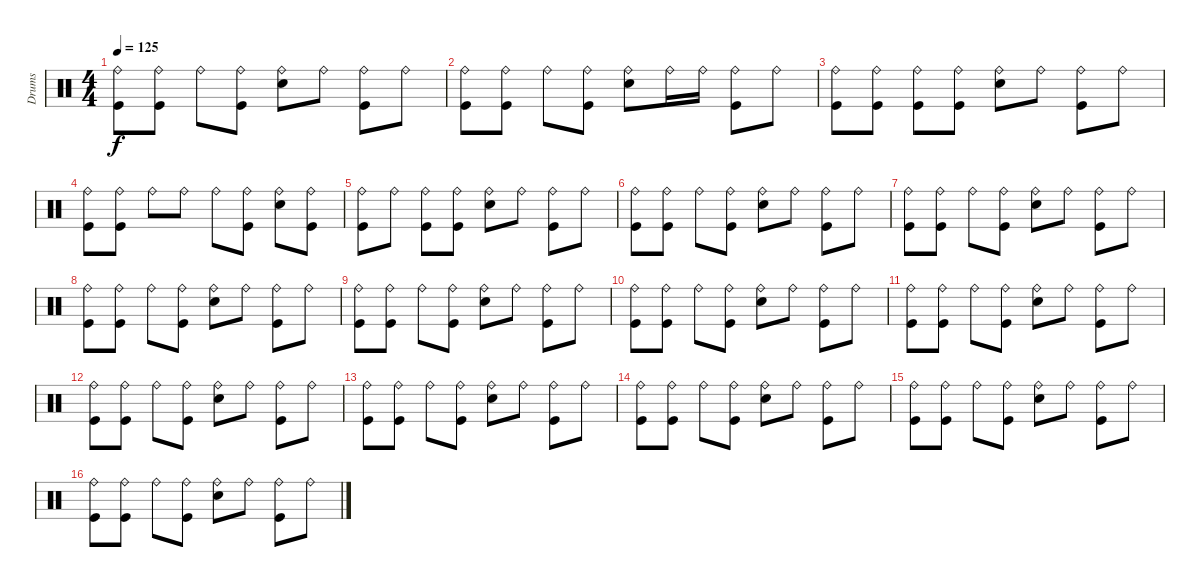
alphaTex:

\track ("Drums" "Drums") {instrument percussion}
\staff {score}
\articulation defaults
\ts (4 4)
\tempo 125
\clef neutral
\ks c
("Kick (hit)" "Ride (bell)").8{dy f} ("Kick (hit)" "Ride (bell)").8 "Ride (bell)".8 ("Kick (hit)" "Ride (bell)").8 ("Electric Snare (hit)" "Ride (bell)").8 "Ride (bell)".8 ("Kick (hit)" "Ride (bell)").8 "Ride (bell)".8 |
("Kick (hit)" "Ride (bell)").8 ("Kick (hit)" "Ride (bell)").8 "Ride (bell)".8 ("Kick (hit)" "Ride (bell)").8 ("Electric Snare (hit)" "Ride (bell)").8 "Ride (bell)".16 "Ride (bell)".16 ("Kick (hit)" "Ride (bell)").8 "Ride (bell)".8 |
("Kick (hit)" "Ride (bell)").8 ("Kick (hit)" "Ride (bell)").8 ("Kick (hit)" "Ride (bell)").8 ("Kick (hit)" "Ride (bell)").8 ("Electric Snare (hit)" "Ride (bell)").8 "Ride (bell)".8 ("Kick (hit)" "Ride (bell)").8 "Ride (bell)".8 |
("Kick (hit)" "Ride (bell)").8 ("Kick (hit)" "Ride (bell)").8 "Ride (bell)".8 "Ride (bell)".8 "Ride (bell)".8 ("Kick (hit)" "Ride (bell)").8 ("Electric Snare (hit)" "Ride (bell)").8 ("Kick (hit)" "Ride (bell)").8 |
("Kick (hit)" "Ride (bell)").8 "Ride (bell)".8 ("Kick (hit)" "Ride (bell)").8 ("Kick (hit)" "Ride (bell)").8 ("Electric Snare (hit)" "Ride (bell)").8 "Ride (bell)".8 ("Kick (hit)" "Ride (bell)").8 "Ride (bell)".8 |
("Kick (hit)" "Ride (bell)").8 ("Kick (hit)" "Ride (bell)").8 "Ride (bell)".8 ("Kick (hit)" "Ride (bell)").8 ("Electric Snare (hit)" "Ride (bell)").8 "Ride (bell)".8 ("Kick (hit)" "Ride (bell)").8 "Ride (bell)".8 |
("Kick (hit)" "Ride (bell)").8 ("Kick (hit)" "Ride (bell)").8 "Ride (bell)".8 ("Kick (hit)" "Ride (bell)").8 ("Electric Snare (hit)" "Ride (bell)").8 "Ride (bell)".8 ("Kick (hit)" "Ride (bell)").8 "Ride (bell)".8 |
("Kick (hit)" "Ride (bell)").8 ("Kick (hit)" "Ride (bell)").8 "Ride (bell)".8 ("Kick (hit)" "Ride (bell)").8 ("Electric Snare (hit)" "Ride (bell)").8 "Ride (bell)".8 ("Kick (hit)" "Ride (bell)").8 "Ride (bell)".8 |
("Kick (hit)" "Ride (bell)").8 ("Kick (hit)" "Ride (bell)").8 "Ride (bell)".8 ("Kick (hit)" "Ride (bell)").8 ("Electric Snare (hit)" "Ride (bell)").8 "Ride (bell)".8 ("Kick (hit)" "Ride (bell)").8 "Ride (bell)".8 |
("Kick (hit)" "Ride (bell)").8 ("Kick (hit)" "Ride (bell)").8 "Ride (bell)".8 ("Kick (hit)" "Ride (bell)").8 ("Electric Snare (hit)" "Ride (bell)").8 "Ride (bell)".8 ("Kick (hit)" "Ride (bell)").8 "Ride (bell)".8 |
("Kick (hit)" "Ride (bell)").8 ("Kick (hit)" "Ride (bell)").8 "Ride (bell)".8 ("Kick (hit)" "Ride (bell)").8 ("Electric Snare (hit)" "Ride (bell)").8 "Ride (bell)".8 ("Kick (hit)" "Ride (bell)").8 "Ride (bell)".8 |
("Kick (hit)" "Ride (bell)").8 ("Kick (hit)" "Ride (bell)").8 "Ride (bell)".8 ("Kick (hit)" "Ride (bell)").8 ("Electric Snare (hit)" "Ride (bell)").8 "Ride (bell)".8 ("Kick (hit)" "Ride (bell)").8 "Ride (bell)".8 |
("Kick (hit)" "Ride (bell)").8 ("Kick (hit)" "Ride (bell)").8 "Ride (bell)".8 ("Kick (hit)" "Ride (bell)").8 ("Electric Snare (hit)" "Ride (bell)").8 "Ride (bell)".8 ("Kick (hit)" "Ride (bell)").8 "Ride (bell)".8 |
("Kick (hit)" "Ride (bell)").8 ("Kick (hit)" "Ride (bell)").8 "Ride (bell)".8 ("Kick (hit)" "Ride (bell)").8 ("Electric Snare (hit)" "Ride (bell)").8 "Ride (bell)".8 ("Kick (hit)" "Ride (bell)").8 "Ride (bell)".8 |
("Kick (hit)" "Ride (bell)").8 ("Kick (hit)" "Ride (bell)").8 "Ride (bell)".8 ("Kick (hit)" "Ride (bell)").8 ("Electric Snare (hit)" "Ride (bell)").8 "Ride (bell)".8 ("Kick (hit)" "Ride (bell)").8 "Ride (bell)".8 |
("Kick (hit)" "Ride (bell)").8 ("Kick (hit)" "Ride (bell)").8 "Ride (bell)".8 ("Kick (hit)" "Ride (bell)").8 ("Electric Snare (hit)" "Ride (bell)").8 "Ride (bell)".8 ("Kick (hit)" "Ride (bell)").8 "Ride (bell)".8
